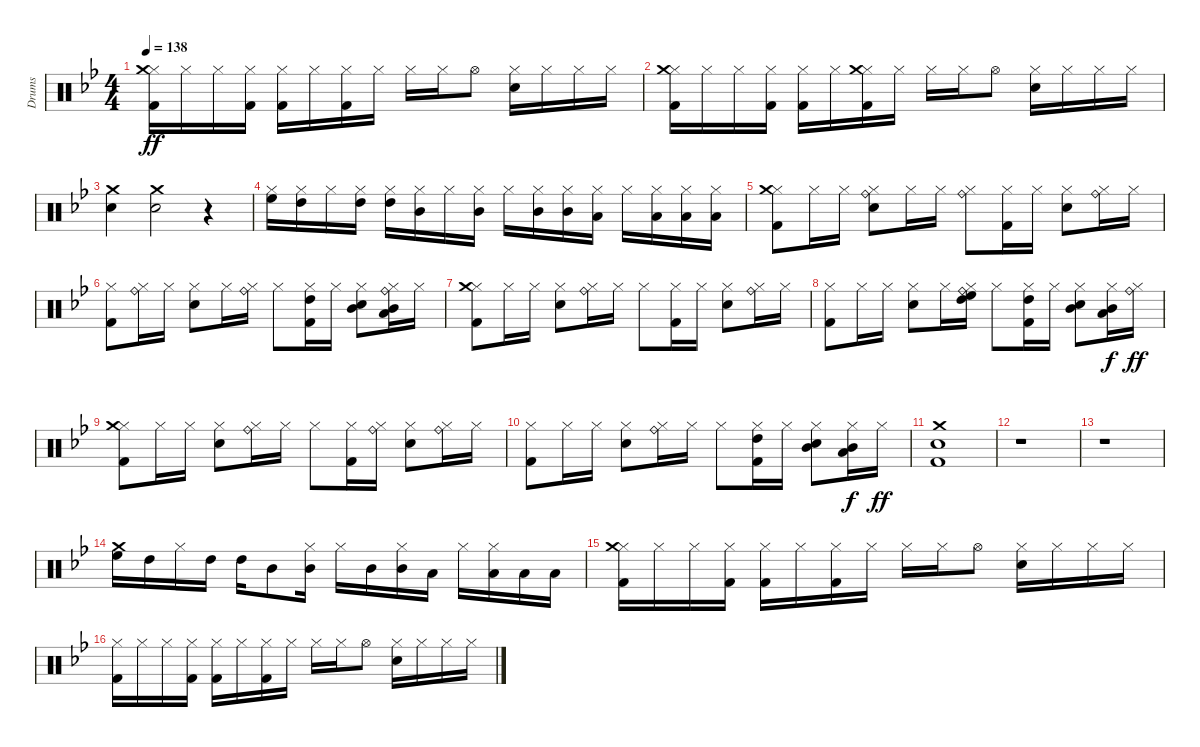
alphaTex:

\track ("Drums" "Drums") {instrument percussion}
\staff {score}
\articulation defaults
\ts (4 4)
\tempo 138
\clef neutral
\ks bb
("Kick (hit) 2" "Hi-Hat (closed)" "Crash medium (hit)").16{dy ff} "Hi-Hat (closed)".16 "Hi-Hat (closed)".16 ("Kick (hit) 2" "Hi-Hat (closed)").16 ("Kick (hit) 2" "Hi-Hat (closed)").16 "Hi-Hat (closed)".16 ("Kick (hit) 2" "Hi-Hat (closed)").16 "Hi-Hat (closed)".16 "Hi-Hat (closed)".16 "Hi-Hat (closed)".16 "Hi-Hat (open)".8 ("Snare (hit) 2" "Hi-Hat (closed)").16 "Hi-Hat (closed)".16 "Hi-Hat (closed)".16 "Hi-Hat (closed)".16 |
("Kick (hit) 2" "Hi-Hat (closed)" "Crash medium (hit)").16 "Hi-Hat (closed)".16 "Hi-Hat (closed)".16 ("Kick (hit) 2" "Hi-Hat (closed)").16 ("Kick (hit) 2" "Hi-Hat (closed)").16 "Hi-Hat (closed)".16 ("Kick (hit) 2" "Hi-Hat (closed)" "Crash medium (hit)").16 "Hi-Hat (closed)".16 "Hi-Hat (closed)".16 "Hi-Hat (closed)".16 "Hi-Hat (open)".8 ("Snare (hit) 2" "Hi-Hat (closed)").16 "Hi-Hat (closed)".16 "Hi-Hat (closed)".16 "Hi-Hat (closed)".16 |
("Snare (hit) 2" "Crash medium (hit)").4 ("Snare (hit) 2" "Crash medium (hit)").2 r.4 |
("Hi-Hat (closed)" "High Floor Tom (hit)").16 ("Hi-Hat (closed)" "High Tom (hit)").16 "Hi-Hat (closed)".16 ("Hi-Hat (closed)" "High Tom (hit)").16 ("Hi-Hat (closed)" "High Tom (hit)").16 ("Hi-Hat (closed)" "Mid Tom (hit)").16 "Hi-Hat (closed)".16 ("Hi-Hat (closed)" "Mid Tom (hit)").16 "Hi-Hat (closed)".16 ("Hi-Hat (closed)" "Mid Tom (hit)").16 ("Hi-Hat (closed)" "Mid Tom (hit)").16 ("Hi-Hat (closed)" "Low Tom (hit)").16 "Hi-Hat (closed)".16 ("Hi-Hat (closed)" "Low Tom (hit)").16 ("Hi-Hat (closed)" "Low Tom (hit)").16 ("Hi-Hat (closed)" "Low Tom (hit)").16 |
("Kick (hit) 2" "Hi-Hat (closed)" "Crash medium (hit)").8 "Hi-Hat (closed)".16 "Hi-Hat (closed)".16 ("Snare (hit) 2" "Hi-Hat (closed)" "Ride (bell)").8 "Hi-Hat (closed)".16 "Hi-Hat (closed)".16 ("Hi-Hat (closed)" "Ride (bell)").8 ("Kick (hit) 2" "Hi-Hat (closed)").16 "Hi-Hat (closed)".16 ("Snare (hit) 2" "Hi-Hat (closed)").8 ("Hi-Hat (closed)" "Ride (bell)").16 "Hi-Hat (closed)".16 |
("Kick (hit) 2" "Hi-Hat (closed)").8 ("Hi-Hat (closed)" "Ride (bell)").16 "Hi-Hat (closed)".16 ("Snare (hit) 2" "Hi-Hat (closed)").8 "Hi-Hat (closed)".16 ("Hi-Hat (closed)" "Ride (bell)").16 "Hi-Hat (closed)".8 ("Kick (hit) 2" "Hi-Hat (closed)" "High Tom (hit)").16 "Hi-Hat (closed)".16 ("Snare (hit) 2" "Hi-Hat (closed)" "Mid Tom (hit)").8 ("Hi-Hat (closed)" "Low Tom (hit)" "Mid Tom (hit)" "Ride (bell)").16 "Hi-Hat (closed)".16 |
("Kick (hit) 2" "Hi-Hat (closed)" "Crash medium (hit)").8 "Hi-Hat (closed)".16 "Hi-Hat (closed)".16 ("Snare (hit) 2" "Hi-Hat (closed)").8 ("Hi-Hat (closed)" "Ride (bell)").16 "Hi-Hat (closed)".16 "Hi-Hat (closed)".8 ("Kick (hit) 2" "Hi-Hat (closed)").16 "Hi-Hat (closed)".16 ("Snare (hit) 2" "Hi-Hat (closed)").8 ("Hi-Hat (closed)" "Ride (bell)").16 "Hi-Hat (closed)".16 |
("Kick (hit) 2" "Hi-Hat (closed)").8 "Hi-Hat (closed)".16 "Hi-Hat (closed)".16 ("Snare (hit) 2" "Hi-Hat (closed)").8 "Hi-Hat (closed)".16 ("Hi-Hat (closed)" "High Tom (hit)" "High Floor Tom (hit)" "Ride (bell)").16 "Hi-Hat (closed)".8 ("Kick (hit) 2" "Hi-Hat (closed)" "High Tom (hit)").16 "Hi-Hat (closed)".16 ("Snare (hit) 2" "Hi-Hat (closed)" "Mid Tom (hit)").8 ("Hi-Hat (closed)" "Low Tom (hit)" "Mid Tom (hit)").16{dy f} ("Hi-Hat (closed)" "Ride (bell)").16{dy ff} |
("Kick (hit) 2" "Hi-Hat (closed)" "Crash medium (hit)").8 "Hi-Hat (closed)".16 "Hi-Hat (closed)".16 ("Snare (hit) 2" "Hi-Hat (closed)").8 ("Hi-Hat (closed)" "Ride (bell)").16 "Hi-Hat (closed)".16 "Hi-Hat (closed)".8 ("Kick (hit) 2" "Hi-Hat (closed)").16 ("Hi-Hat (closed)" "Ride (bell)").16 ("Snare (hit) 2" "Hi-Hat (closed)").8 ("Hi-Hat (closed)" "Ride (bell)").16 "Hi-Hat (closed)".16 |
("Kick (hit) 2" "Hi-Hat (closed)").8 "Hi-Hat (closed)".16 "Hi-Hat (closed)".16 ("Snare (hit) 2" "Hi-Hat (closed)").8 ("Hi-Hat (closed)" "Ride (bell)").16 "Hi-Hat (closed)".16 "Hi-Hat (closed)".8 ("Kick (hit) 2" "Hi-Hat (closed)" "High Tom (hit)").16 "Hi-Hat (closed)".16 ("Snare (hit) 2" "Hi-Hat (closed)" "Mid Tom (hit)").8 ("Hi-Hat (closed)" "Low Tom (hit)" "Mid Tom (hit)").16{dy f} "Hi-Hat (closed)".16{dy ff} |
("Kick (hit) 2" "Snare (hit) 2" "Crash medium (hit)").1 |
r.1 |
r.1 |
("High Floor Tom (hit)" "Crash medium (hit)").16 "High Tom (hit)".16 "Hi-Hat (closed)".16 "High Tom (hit)".16 "High Tom (hit)".16 "Mid Tom (hit)".8 ("Hi-Hat (closed)" "Mid Tom (hit)").16 "Hi-Hat (closed)".16 "Mid Tom (hit)".16 ("Hi-Hat (closed)" "Mid Tom (hit)").16 "Low Tom (hit)".16 "Hi-Hat (closed)".16 ("Hi-Hat (closed)" "Low Tom (hit)").16 "Low Tom (hit)".16 "Low Tom (hit)".16 |
("Kick (hit) 2" "Hi-Hat (closed)" "Crash medium (hit)").16 "Hi-Hat (closed)".16 "Hi-Hat (closed)".16 ("Kick (hit) 2" "Hi-Hat (closed)").16 ("Kick (hit) 2" "Hi-Hat (closed)").16 "Hi-Hat (closed)".16 ("Kick (hit) 2" "Hi-Hat (closed)").16 "Hi-Hat (closed)".16 "Hi-Hat (closed)".16 "Hi-Hat (closed)".16 "Hi-Hat (open)".8 ("Snare (hit) 2" "Hi-Hat (closed)").16 "Hi-Hat (closed)".16 "Hi-Hat (closed)".16 "Hi-Hat (closed)".16 |
("Kick (hit) 2" "Hi-Hat (closed)").16 "Hi-Hat (closed)".16 "Hi-Hat (closed)".16 ("Kick (hit) 2" "Hi-Hat (closed)").16 ("Kick (hit) 2" "Hi-Hat (closed)").16 "Hi-Hat (closed)".16 ("Kick (hit) 2" "Hi-Hat (closed)").16 "Hi-Hat (closed)".16 "Hi-Hat (closed)".16 "Hi-Hat (closed)".16 "Hi-Hat (open)".8 ("Snare (hit) 2" "Hi-Hat (closed)").16 "Hi-Hat (closed)".16 "Hi-Hat (closed)".16 "Hi-Hat (closed)".16
